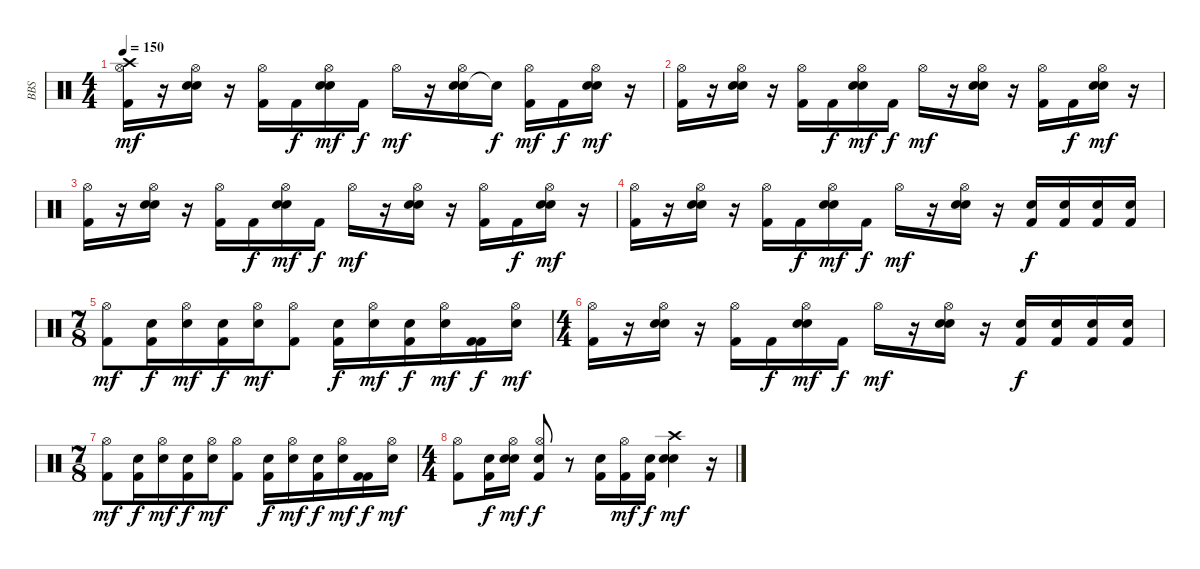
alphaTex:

\track ("BBS" "BBS") {instrument percussion}
\staff {score}
\articulation defaults
\ts (4 4)
\tempo 150
\clef neutral
\ks c
("Kick (hit) 2" "Crash high (hit)" "Hi-Hat (open)").16{dy mf} r.16 ("Electric Snare (hit)" "Electric Snare (hit)" "Hi-Hat (open)").16 r.16 ("Kick (hit) 2" "Hi-Hat (open)").16 "Kick (hit) 2".16{dy f} ("Electric Snare (hit)" "Electric Snare (hit)" "Hi-Hat (open)").16{dy mf} "Kick (hit) 2".16{dy f} "Hi-Hat (open)".16{dy mf} r.16 ("Electric Snare (hit)" "Electric Snare (hit)" "Hi-Hat (open)").16 "Snare (hit)"{t}.16{dy f} ("Kick (hit) 2" "Hi-Hat (open)").16{dy mf} "Kick (hit) 2".16{dy f} ("Electric Snare (hit)" "Electric Snare (hit)" "Hi-Hat (open)").16{dy mf} r.16 |
("Kick (hit) 2" "Hi-Hat (open)").16 r.16 ("Electric Snare (hit)" "Electric Snare (hit)" "Hi-Hat (open)").16 r.16 ("Kick (hit) 2" "Hi-Hat (open)").16 "Kick (hit) 2".16{dy f} ("Electric Snare (hit)" "Electric Snare (hit)" "Hi-Hat (open)").16{dy mf} "Kick (hit) 2".16{dy f} "Hi-Hat (open)".16{dy mf} r.16 ("Electric Snare (hit)" "Electric Snare (hit)" "Hi-Hat (open)").16 r.16 ("Kick (hit) 2" "Hi-Hat (open)").16 "Kick (hit) 2".16{dy f} ("Electric Snare (hit)" "Electric Snare (hit)" "Hi-Hat (open)").16{dy mf} r.16 |
("Kick (hit) 2" "Hi-Hat (open)").16 r.16 ("Electric Snare (hit)" "Electric Snare (hit)" "Hi-Hat (open)").16 r.16 ("Kick (hit) 2" "Hi-Hat (open)").16 "Kick (hit) 2".16{dy f} ("Electric Snare (hit)" "Electric Snare (hit)" "Hi-Hat (open)").16{dy mf} "Kick (hit) 2".16{dy f} "Hi-Hat (open)".16{dy mf} r.16 ("Electric Snare (hit)" "Electric Snare (hit)" "Hi-Hat (open)").16 r.16 ("Kick (hit) 2" "Hi-Hat (open)").16 "Kick (hit) 2".16{dy f} ("Electric Snare (hit)" "Electric Snare (hit)" "Hi-Hat (open)").16{dy mf} r.16 |
("Kick (hit) 2" "Hi-Hat (open)").16 r.16 ("Electric Snare (hit)" "Electric Snare (hit)" "Hi-Hat (open)").16 r.16 ("Kick (hit) 2" "Hi-Hat (open)").16 "Kick (hit) 2".16{dy f} ("Electric Snare (hit)" "Electric Snare (hit)" "Hi-Hat (open)").16{dy mf} "Kick (hit) 2".16{dy f} "Hi-Hat (open)".16{dy mf} r.16 ("Electric Snare (hit)" "Electric Snare (hit)" "Hi-Hat (open)").16 r.16 ("Kick (hit) 2" "Electric Snare (hit)").16{dy f} ("Kick (hit) 2" "Electric Snare (hit)").16 ("Kick (hit) 2" "Electric Snare (hit)").16 ("Kick (hit) 2" "Electric Snare (hit)").16 |
\ts (7 8)
("Kick (hit) 2" "Hi-Hat (open)").8{dy mf} ("Electric Snare (hit)" "Kick (hit) 2").16{dy f} ("Snare (hit) 2" "Hi-Hat (open)").16{dy mf} ("Electric Snare (hit)" "Kick (hit) 2").16{dy f} ("Snare (hit) 2" "Hi-Hat (open)").16{dy mf} ("Kick (hit) 2" "Hi-Hat (open)").8 ("Electric Snare (hit)" "Kick (hit) 2").16{dy f} ("Snare (hit) 2" "Hi-Hat (open)").16{dy mf} ("Electric Snare (hit)" "Kick (hit) 2").16{dy f} ("Snare (hit) 2" "Hi-Hat (open)").16{dy mf} ("Kick (hit) 2" "Kick (hit) 2").16{dy f} ("Electric Snare (hit)" "Hi-Hat (open)").16{dy mf} |
\ts (4 4)
("Kick (hit) 2" "Hi-Hat (open)").16 r.16 ("Electric Snare (hit)" "Electric Snare (hit)" "Hi-Hat (open)").16 r.16 ("Kick (hit) 2" "Hi-Hat (open)").16 "Kick (hit) 2".16{dy f} ("Electric Snare (hit)" "Electric Snare (hit)" "Hi-Hat (open)").16{dy mf} "Kick (hit) 2".16{dy f} "Hi-Hat (open)".16{dy mf} r.16 ("Electric Snare (hit)" "Electric Snare (hit)" "Hi-Hat (open)").16 r.16 ("Kick (hit) 2" "Electric Snare (hit)").16{dy f} ("Kick (hit) 2" "Electric Snare (hit)").16 ("Kick (hit) 2" "Electric Snare (hit)").16 ("Kick (hit) 2" "Electric Snare (hit)").16 |
\ts (7 8)
("Kick (hit) 2" "Hi-Hat (open)").8{dy mf} ("Electric Snare (hit)" "Kick (hit) 2").16{dy f} ("Snare (hit) 2" "Hi-Hat (open)").16{dy mf} ("Electric Snare (hit)" "Kick (hit) 2").16{dy f} ("Snare (hit) 2" "Hi-Hat (open)").16{dy mf} ("Kick (hit) 2" "Hi-Hat (open)").8 ("Electric Snare (hit)" "Kick (hit) 2").16{dy f} ("Snare (hit) 2" "Hi-Hat (open)").16{dy mf} ("Electric Snare (hit)" "Kick (hit) 2").16{dy f} ("Snare (hit) 2" "Hi-Hat (open)").16{dy mf} ("Kick (hit) 2" "Kick (hit) 2").16{dy f} ("Electric Snare (hit)" "Hi-Hat (open)").16{dy mf} |
\ts (4 4)
("Kick (hit) 2" "Hi-Hat (open)").8 ("Electric Snare (hit)" "Kick (hit) 2").16{dy f} ("Electric Snare (hit)" "Electric Snare (hit)" "Hi-Hat (open)").16{dy mf} ("Electric Snare (hit)" "Kick (hit) 2" "Hi-Hat (open)").8{dy f} r.8 ("Kick (hit) 2" "Electric Snare (hit)").16 ("Kick (hit) 2" "Hi-Hat (open)").16{dy mf} ("Kick (hit) 2" "Electric Snare (hit)").16{dy f} ("Electric Snare (hit)" "Electric Snare (hit)" "Crash high (hit)").4{dy mf} r.16
